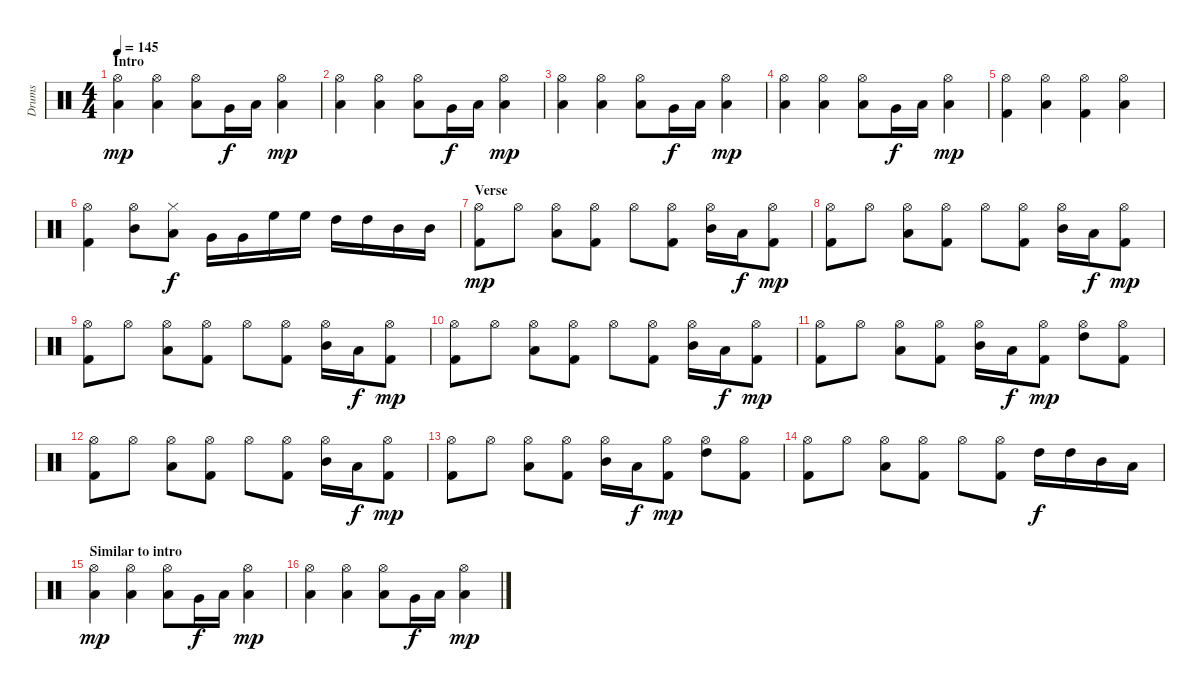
\track ("Drums" "Drums") {instrument percussion}
\staff {score}
\articulation defaults
\ts (4 4)
\section ("" "Intro")
\tempo 145
\clef neutral
\ks c
("Hi-Hat (open)" "Low Floor Tom (hit)").4{dy mp} ("Hi-Hat (open)" "Low Floor Tom (hit)").4 ("Hi-Hat (open)" "Low Floor Tom (hit)").8 "Very Low Tom (hit)".16{dy f} "Low Floor Tom (hit)".16 ("Hi-Hat (open)" "Low Floor Tom (hit)").4{dy mp} |
("Hi-Hat (open)" "Low Floor Tom (hit)").4 ("Hi-Hat (open)" "Low Floor Tom (hit)").4 ("Hi-Hat (open)" "Low Floor Tom (hit)").8 "Very Low Tom (hit)".16{dy f} "Low Floor Tom (hit)".16 ("Hi-Hat (open)" "Low Floor Tom (hit)").4{dy mp} |
("Hi-Hat (open)" "Low Floor Tom (hit)").4 ("Hi-Hat (open)" "Low Floor Tom (hit)").4 ("Hi-Hat (open)" "Low Floor Tom (hit)").8 "Very Low Tom (hit)".16{dy f} "Low Floor Tom (hit)".16 ("Hi-Hat (open)" "Low Floor Tom (hit)").4{dy mp} |
("Hi-Hat (open)" "Low Floor Tom (hit)").4 ("Hi-Hat (open)" "Low Floor Tom (hit)").4 ("Hi-Hat (open)" "Low Floor Tom (hit)").8 "Very Low Tom (hit)".16{dy f} "Low Floor Tom (hit)".16 ("Hi-Hat (open)" "Low Floor Tom (hit)").4{dy mp} |
("Hi-Hat (open)" "Kick (hit) 2").4 ("Hi-Hat (open)" "Low Tom (hit)").4 ("Hi-Hat (open)" "Kick (hit) 2").4 ("Hi-Hat (open)" "Low Tom (hit)").4 |
("Hi-Hat (open)" "Kick (hit) 2").4 ("Hi-Hat (open)" "Mid Tom (hit)").8 ("Hi-Hat (closed)" "Low Tom (hit)").8{dy f} "Very Low Tom (hit)".16 "Very Low Tom (hit)".16 "High Floor Tom (hit)".16 "High Floor Tom (hit)".16 "High Tom (hit)".16 "High Tom (hit)".16 "Mid Tom (hit)".16 "Mid Tom (hit)".16 |
\section ("" "Verse")
("Hi-Hat (open)" "Kick (hit) 2").8{dy mp} "Hi-Hat (open)".8 ("Hi-Hat (open)" "Low Tom (hit)").8 ("Hi-Hat (open)" "Kick (hit) 2").8 "Hi-Hat (open)".8 ("Hi-Hat (open)" "Kick (hit) 2").8 ("Hi-Hat (open)" "Mid Tom (hit)").16 "Low Tom (hit)".16{dy f} ("Hi-Hat (open)" "Kick (hit) 2").8{dy mp} |
("Hi-Hat (open)" "Kick (hit) 2").8 "Hi-Hat (open)".8 ("Hi-Hat (open)" "Low Tom (hit)").8 ("Hi-Hat (open)" "Kick (hit) 2").8 "Hi-Hat (open)".8 ("Hi-Hat (open)" "Kick (hit) 2").8 ("Hi-Hat (open)" "Mid Tom (hit)").16 "Low Tom (hit)".16{dy f} ("Hi-Hat (open)" "Kick (hit) 2").8{dy mp} |
("Hi-Hat (open)" "Kick (hit) 2").8 "Hi-Hat (open)".8 ("Hi-Hat (open)" "Low Tom (hit)").8 ("Hi-Hat (open)" "Kick (hit) 2").8 "Hi-Hat (open)".8 ("Hi-Hat (open)" "Kick (hit) 2").8 ("Hi-Hat (open)" "Mid Tom (hit)").16 "Low Tom (hit)".16{dy f} ("Hi-Hat (open)" "Kick (hit) 2").8{dy mp} |
("Hi-Hat (open)" "Kick (hit) 2").8 "Hi-Hat (open)".8 ("Hi-Hat (open)" "Low Tom (hit)").8 ("Hi-Hat (open)" "Kick (hit) 2").8 "Hi-Hat (open)".8 ("Hi-Hat (open)" "Kick (hit) 2").8 ("Hi-Hat (open)" "Mid Tom (hit)").16 "Low Tom (hit)".16{dy f} ("Hi-Hat (open)" "Kick (hit) 2").8{dy mp} |
("Hi-Hat (open)" "Kick (hit) 2").8 "Hi-Hat (open)".8 ("Hi-Hat (open)" "Low Tom (hit)").8 ("Hi-Hat (open)" "Kick (hit) 2").8 ("Hi-Hat (open)" "Mid Tom (hit)").16 "Low Tom (hit)".16{dy f} ("Hi-Hat (open)" "Kick (hit) 2").8{dy mp} ("Hi-Hat (open)" "High Tom (hit)").8 ("Hi-Hat (open)" "Kick (hit) 2").8 |
("Hi-Hat (open)" "Kick (hit) 2").8 "Hi-Hat (open)".8 ("Hi-Hat (open)" "Low Tom (hit)").8 ("Hi-Hat (open)" "Kick (hit) 2").8 "Hi-Hat (open)".8 ("Hi-Hat (open)" "Kick (hit) 2").8 ("Hi-Hat (open)" "Mid Tom (hit)").16 "Low Tom (hit)".16{dy f} ("Hi-Hat (open)" "Kick (hit) 2").8{dy mp} |
("Hi-Hat (open)" "Kick (hit) 2").8 "Hi-Hat (open)".8 ("Hi-Hat (open)" "Low Tom (hit)").8 ("Hi-Hat (open)" "Kick (hit) 2").8 ("Hi-Hat (open)" "Mid Tom (hit)").16 "Low Tom (hit)".16{dy f} ("Hi-Hat (open)" "Kick (hit) 2").8{dy mp} ("Hi-Hat (open)" "High Tom (hit)").8 ("Hi-Hat (open)" "Kick (hit) 2").8 |
("Hi-Hat (open)" "Kick (hit) 2").8 "Hi-Hat (open)".8 ("Hi-Hat (open)" "Low Tom (hit)").8 ("Hi-Hat (open)" "Kick (hit) 2").8 "Hi-Hat (open)".8 ("Hi-Hat (open)" "Kick (hit) 2").8 "High Tom (hit)".16{dy f} "High Tom (hit)".16 "Mid Tom (hit)".16 "Low Tom (hit)".16 |
\section ("" "Similar to intro")
("Hi-Hat (open)" "Low Floor Tom (hit)").4{dy mp} ("Hi-Hat (open)" "Low Floor Tom (hit)").4 ("Hi-Hat (open)" "Low Floor Tom (hit)").8 "Very Low Tom (hit)".16{dy f} "Low Floor Tom (hit)".16 ("Hi-Hat (open)" "Low Floor Tom (hit)").4{dy mp} |
("Hi-Hat (open)" "Low Floor Tom (hit)").4 ("Hi-Hat (open)" "Low Floor Tom (hit)").4 ("Hi-Hat (open)" "Low Floor Tom (hit)").8 "Very Low Tom (hit)".16{dy f} "Low Floor Tom (hit)".16 ("Hi-Hat (open)" "Low Floor Tom (hit)").4{dy mp}
